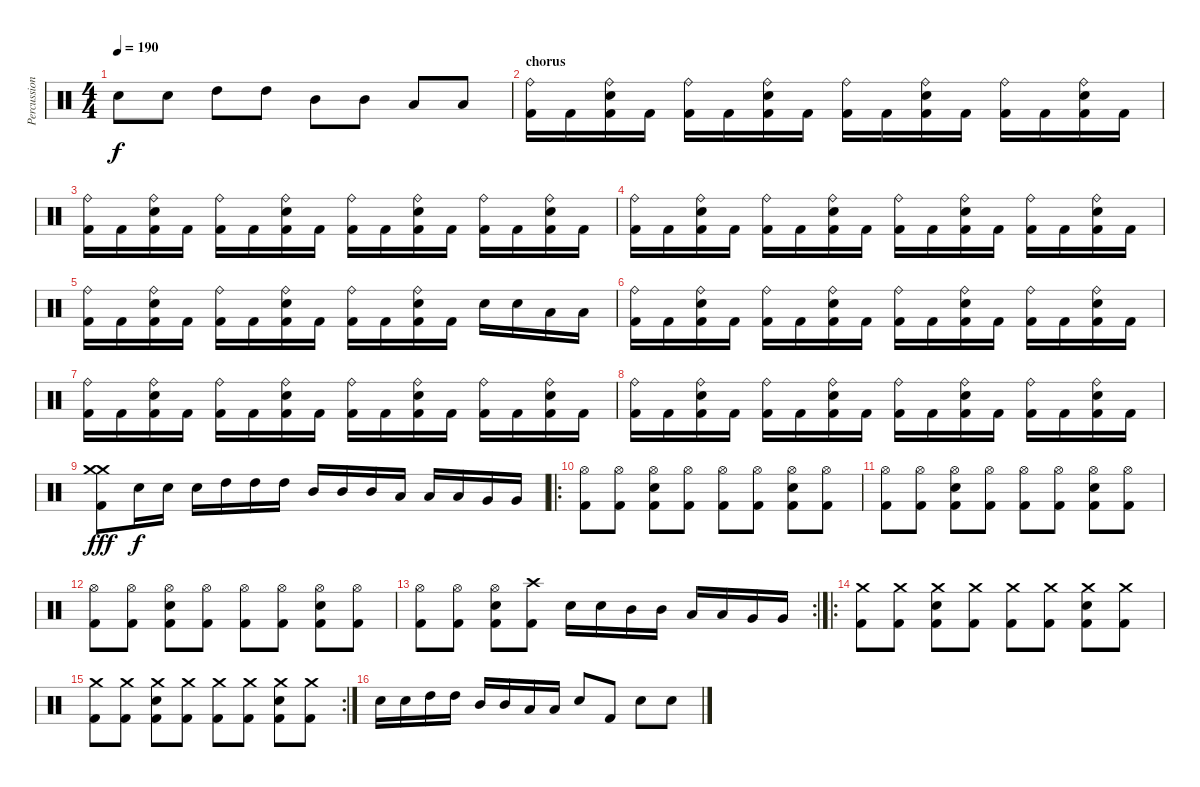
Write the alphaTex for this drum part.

\track ("Percussions" "Percussion") {instrument percussion}
\staff {score}
\articulation defaults
\ts (4 4)
\tempo 190
\clef neutral
\ks c "Electric Snare (hit)".8{dy f} "Electric Snare (hit)".8 "High Tom (hit)".8 "High Tom (hit)".8 "Mid Tom (hit)".8 "Mid Tom (hit)".8 "Low Tom (hit)".8 "Low Tom (hit)".8
|
\section ("" "chorus")
("Ride (bell)" "Kick (hit) 2").16 "Kick (hit) 2".16 ("Ride (bell)" "Electric Snare (hit)" "Kick (hit) 2").16 "Kick (hit) 2".16 ("Ride (bell)" "Kick (hit) 2").16 "Kick (hit) 2".16 ("Ride (bell)" "Electric Snare (hit)" "Kick (hit) 2").16 "Kick (hit) 2".16 ("Ride (bell)" "Kick (hit) 2").16 "Kick (hit) 2".16 ("Ride (bell)" "Electric Snare (hit)" "Kick (hit) 2").16 "Kick (hit) 2".16 ("Ride (bell)" "Kick (hit) 2").16 "Kick (hit) 2".16 ("Ride (bell)" "Electric Snare (hit)" "Kick (hit) 2").16 "Kick (hit) 2".16 |
("Ride (bell)" "Kick (hit) 2").16 "Kick (hit) 2".16 ("Ride (bell)" "Electric Snare (hit)" "Kick (hit) 2").16 "Kick (hit) 2".16 ("Ride (bell)" "Kick (hit) 2").16 "Kick (hit) 2".16 ("Ride (bell)" "Electric Snare (hit)" "Kick (hit) 2").16 "Kick (hit) 2".16 ("Ride (bell)" "Kick (hit) 2").16 "Kick (hit) 2".16 ("Ride (bell)" "Electric Snare (hit)" "Kick (hit) 2").16 "Kick (hit) 2".16 ("Ride (bell)" "Kick (hit) 2").16 "Kick (hit) 2".16 ("Ride (bell)" "Electric Snare (hit)" "Kick (hit) 2").16 "Kick (hit) 2".16 |
("Ride (bell)" "Kick (hit) 2").16 "Kick (hit) 2".16 ("Ride (bell)" "Electric Snare (hit)" "Kick (hit) 2").16 "Kick (hit) 2".16 ("Ride (bell)" "Kick (hit) 2").16 "Kick (hit) 2".16 ("Ride (bell)" "Electric Snare (hit)" "Kick (hit) 2").16 "Kick (hit) 2".16 ("Ride (bell)" "Kick (hit) 2").16 "Kick (hit) 2".16 ("Ride (bell)" "Electric Snare (hit)" "Kick (hit) 2").16 "Kick (hit) 2".16 ("Ride (bell)" "Kick (hit) 2").16 "Kick (hit) 2".16 ("Ride (bell)" "Electric Snare (hit)" "Kick (hit) 2").16 "Kick (hit) 2".16 |
("Ride (bell)" "Kick (hit) 2").16 "Kick (hit) 2".16 ("Ride (bell)" "Electric Snare (hit)" "Kick (hit) 2").16 "Kick (hit) 2".16 ("Ride (bell)" "Kick (hit) 2").16 "Kick (hit) 2".16 ("Ride (bell)" "Electric Snare (hit)" "Kick (hit) 2").16 "Kick (hit) 2".16 ("Ride (bell)" "Kick (hit) 2").16 "Kick (hit) 2".16 ("Ride (bell)" "Electric Snare (hit)" "Kick (hit) 2").16 "Kick (hit) 2".16 "Electric Snare (hit)".16 "Electric Snare (hit)".16 "Low Tom (hit)".16 "Low Tom (hit)".16 |
("Ride (bell)" "Kick (hit) 2").16 "Kick (hit) 2".16 ("Ride (bell)" "Electric Snare (hit)" "Kick (hit) 2").16 "Kick (hit) 2".16 ("Ride (bell)" "Kick (hit) 2").16 "Kick (hit) 2".16 ("Ride (bell)" "Electric Snare (hit)" "Kick (hit) 2").16 "Kick (hit) 2".16 ("Ride (bell)" "Kick (hit) 2").16 "Kick (hit) 2".16 ("Ride (bell)" "Electric Snare (hit)" "Kick (hit) 2").16 "Kick (hit) 2".16 ("Ride (bell)" "Kick (hit) 2").16 "Kick (hit) 2".16 ("Ride (bell)" "Electric Snare (hit)" "Kick (hit) 2").16 "Kick (hit) 2".16 |
("Ride (bell)" "Kick (hit) 2").16 "Kick (hit) 2".16 ("Ride (bell)" "Electric Snare (hit)" "Kick (hit) 2").16 "Kick (hit) 2".16 ("Ride (bell)" "Kick (hit) 2").16 "Kick (hit) 2".16 ("Ride (bell)" "Electric Snare (hit)" "Kick (hit) 2").16 "Kick (hit) 2".16 ("Ride (bell)" "Kick (hit) 2").16 "Kick (hit) 2".16 ("Ride (bell)" "Electric Snare (hit)" "Kick (hit) 2").16 "Kick (hit) 2".16 ("Ride (bell)" "Kick (hit) 2").16 "Kick (hit) 2".16 ("Ride (bell)" "Electric Snare (hit)" "Kick (hit) 2").16 "Kick (hit) 2".16 |
("Ride (bell)" "Kick (hit) 2").16 "Kick (hit) 2".16 ("Ride (bell)" "Electric Snare (hit)" "Kick (hit) 2").16 "Kick (hit) 2".16 ("Ride (bell)" "Kick (hit) 2").16 "Kick (hit) 2".16 ("Ride (bell)" "Electric Snare (hit)" "Kick (hit) 2").16 "Kick (hit) 2".16 ("Ride (bell)" "Kick (hit) 2").16 "Kick (hit) 2".16 ("Ride (bell)" "Electric Snare (hit)" "Kick (hit) 2").16 "Kick (hit) 2".16 ("Ride (bell)" "Kick (hit) 2").16 "Kick (hit) 2".16 ("Ride (bell)" "Electric Snare (hit)" "Kick (hit) 2").16 "Kick (hit) 2".16 |
("Crash medium (hit)" "Crash medium (hit)" "Kick (hit) 2").8{dy fff} "Electric Snare (hit)".16{dy f} "Electric Snare (hit)".16 "Electric Snare (hit)".16 "High Tom (hit)".16 "High Tom (hit)".16 "High Tom (hit)".16 "Mid Tom (hit)".16 "Mid Tom (hit)".16 "Mid Tom (hit)".16 "Low Tom (hit)".16 "Low Tom (hit)".16 "Low Tom (hit)".16 "Very Low Tom (hit)".16 "Very Low Tom (hit)".16 |
\ro
("Hi-Hat (open)" "Kick (hit) 2").8 ("Hi-Hat (open)" "Kick (hit) 2").8 ("Hi-Hat (open)" "Electric Snare (hit)" "Kick (hit) 2").8 ("Hi-Hat (open)" "Kick (hit) 2").8 ("Hi-Hat (open)" "Kick (hit) 2").8 ("Hi-Hat (open)" "Kick (hit) 2").8 ("Hi-Hat (open)" "Electric Snare (hit)" "Kick (hit) 2").8 ("Hi-Hat (open)" "Kick (hit) 2").8 |
("Hi-Hat (open)" "Kick (hit) 2").8 ("Hi-Hat (open)" "Kick (hit) 2").8 ("Hi-Hat (open)" "Electric Snare (hit)" "Kick (hit) 2").8 ("Hi-Hat (open)" "Kick (hit) 2").8 ("Hi-Hat (open)" "Kick (hit) 2").8 ("Hi-Hat (open)" "Kick (hit) 2").8 ("Hi-Hat (open)" "Electric Snare (hit)" "Kick (hit) 2").8 ("Hi-Hat (open)" "Kick (hit) 2").8 |
("Hi-Hat (open)" "Kick (hit) 2").8 ("Hi-Hat (open)" "Kick (hit) 2").8 ("Hi-Hat (open)" "Electric Snare (hit)" "Kick (hit) 2").8 ("Hi-Hat (open)" "Kick (hit) 2").8 ("Hi-Hat (open)" "Kick (hit) 2").8 ("Hi-Hat (open)" "Kick (hit) 2").8 ("Hi-Hat (open)" "Electric Snare (hit)" "Kick (hit) 2").8 ("Hi-Hat (open)" "Kick (hit) 2").8 |
\rc 2
("Hi-Hat (open)" "Kick (hit) 2").8 ("Hi-Hat (open)" "Kick (hit) 2").8 ("Hi-Hat (open)" "Electric Snare (hit)" "Kick (hit) 2").8 ("Crash high (hit)" "Kick (hit) 2").8 "Electric Snare (hit)".16 "Electric Snare (hit)".16 "Mid Tom (hit)".16 "Mid Tom (hit)".16 "Low Tom (hit)".16 "Low Tom (hit)".16 "Very Low Tom (hit)".16 "Very Low Tom (hit)".16 |
\ro
("Crash medium (hit)" "Kick (hit) 2").8 ("Crash medium (hit)" "Kick (hit) 2").8 ("Crash medium (hit)" "Electric Snare (hit)" "Kick (hit) 2").8 ("Crash medium (hit)" "Kick (hit) 2").8 ("Crash medium (hit)" "Kick (hit) 2").8 ("Crash medium (hit)" "Kick (hit) 2").8 ("Crash medium (hit)" "Electric Snare (hit)" "Kick (hit) 2").8 ("Crash medium (hit)" "Kick (hit) 2").8 |
\rc 2
("Crash medium (hit)" "Kick (hit) 2").8 ("Crash medium (hit)" "Kick (hit) 2").8 ("Crash medium (hit)" "Electric Snare (hit)" "Kick (hit) 2").8 ("Crash medium (hit)" "Kick (hit) 2").8 ("Crash medium (hit)" "Kick (hit) 2").8 ("Crash medium (hit)" "Kick (hit) 2").8 ("Crash medium (hit)" "Electric Snare (hit)" "Kick (hit) 2").8 ("Crash medium (hit)" "Kick (hit) 2").8 |
"Electric Snare (hit)".16 "Electric Snare (hit)".16 "High Tom (hit)".16 "High Tom (hit)".16 "Mid Tom (hit)".16 "Mid Tom (hit)".16 "Low Tom (hit)".16 "Low Tom (hit)".16 "Electric Snare (hit)".8 "Kick (hit) 2".8 "Electric Snare (hit)".8 "Electric Snare (hit)".8
